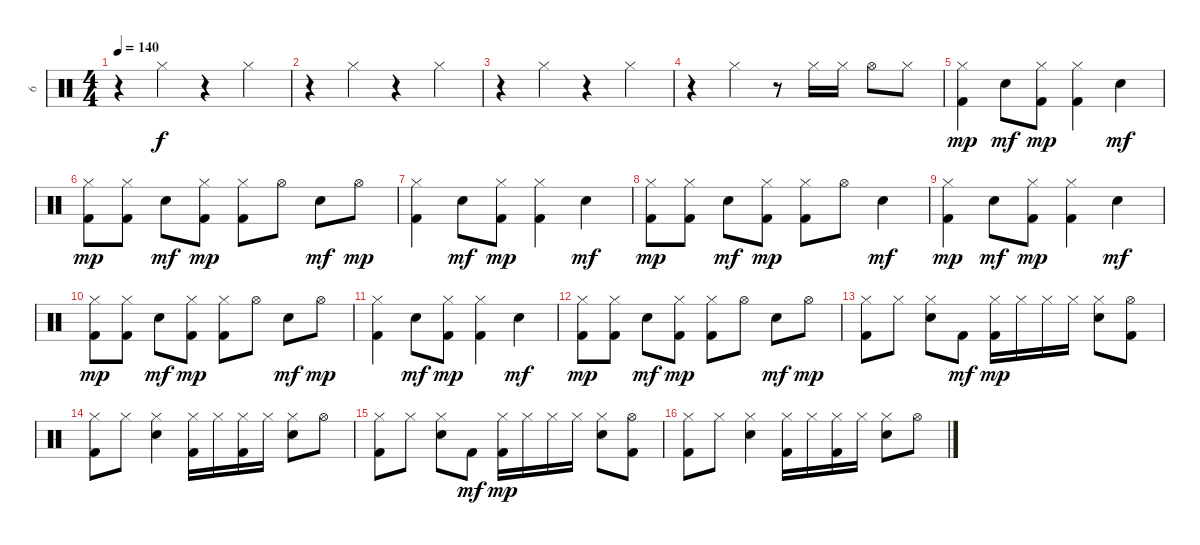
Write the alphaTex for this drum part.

\track ("6" "6") {instrument percussion}
\staff {score}
\articulation defaults
\ts (4 4)
\tempo 140
\clef neutral
\ks c
r.4{dy f} "Hi-Hat (closed)".4 r.4 "Hi-Hat (closed)".4 |
r.4 "Hi-Hat (closed)".4 r.4 "Hi-Hat (closed)".4 |
r.4 "Hi-Hat (closed)".4 r.4 "Hi-Hat (closed)".4 |
r.4 "Hi-Hat (closed)".4 r.8 "Hi-Hat (closed)".16 "Hi-Hat (closed)".16 "Hi-Hat (open)".8 "Hi-Hat (closed)".8 |
("Kick (hit) 2" "Hi-Hat (closed)").4{dy mp} "Electric Snare (hit)".8{dy mf} ("Kick (hit) 2" "Hi-Hat (closed)").8{dy mp} ("Kick (hit) 2" "Hi-Hat (closed)").4 "Electric Snare (hit)".4{dy mf} |
("Kick (hit) 2" "Hi-Hat (closed)").8{dy mp} ("Kick (hit) 2" "Hi-Hat (closed)").8 "Electric Snare (hit)".8{dy mf} ("Kick (hit) 2" "Hi-Hat (closed)").8{dy mp} ("Kick (hit) 2" "Hi-Hat (closed)").8 "Hi-Hat (open)".8 "Electric Snare (hit)".8{dy mf} "Hi-Hat (open)".8{dy mp} |
("Kick (hit) 2" "Hi-Hat (closed)").4 "Electric Snare (hit)".8{dy mf} ("Kick (hit) 2" "Hi-Hat (closed)").8{dy mp} ("Kick (hit) 2" "Hi-Hat (closed)").4 "Electric Snare (hit)".4{dy mf} |
("Kick (hit) 2" "Hi-Hat (closed)").8{dy mp} ("Kick (hit) 2" "Hi-Hat (closed)").8 "Electric Snare (hit)".8{dy mf} ("Kick (hit) 2" "Hi-Hat (closed)").8{dy mp} ("Kick (hit) 2" "Hi-Hat (closed)").8 "Hi-Hat (open)".8 "Electric Snare (hit)".4{dy mf} |
("Kick (hit) 2" "Hi-Hat (closed)").4{dy mp} "Electric Snare (hit)".8{dy mf} ("Kick (hit) 2" "Hi-Hat (closed)").8{dy mp} ("Kick (hit) 2" "Hi-Hat (closed)").4 "Electric Snare (hit)".4{dy mf} |
("Kick (hit) 2" "Hi-Hat (closed)").8{dy mp} ("Kick (hit) 2" "Hi-Hat (closed)").8 "Electric Snare (hit)".8{dy mf} ("Kick (hit) 2" "Hi-Hat (closed)").8{dy mp} ("Kick (hit) 2" "Hi-Hat (closed)").8 "Hi-Hat (open)".8 "Electric Snare (hit)".8{dy mf} "Hi-Hat (open)".8{dy mp} |
("Kick (hit) 2" "Hi-Hat (closed)").4 "Electric Snare (hit)".8{dy mf} ("Kick (hit) 2" "Hi-Hat (closed)").8{dy mp} ("Kick (hit) 2" "Hi-Hat (closed)").4 "Electric Snare (hit)".4{dy mf} |
("Kick (hit) 2" "Hi-Hat (closed)").8{dy mp} ("Kick (hit) 2" "Hi-Hat (closed)").8 "Electric Snare (hit)".8{dy mf} ("Kick (hit) 2" "Hi-Hat (closed)").8{dy mp} ("Kick (hit) 2" "Hi-Hat (closed)").8 "Hi-Hat (open)".8 "Electric Snare (hit)".8{dy mf} "Hi-Hat (open)".8{dy mp} |
("Kick (hit) 2" "Hi-Hat (closed)").8 "Hi-Hat (closed)".8 ("Electric Snare (hit)" "Hi-Hat (closed)").8 "Kick (hit) 2".8{dy mf} ("Kick (hit) 2" "Hi-Hat (closed)").16{dy mp} "Hi-Hat (closed)".16 "Hi-Hat (closed)".16 "Hi-Hat (closed)".16 ("Electric Snare (hit)" "Hi-Hat (closed)").8 ("Kick (hit) 2" "Hi-Hat (open)").8 |
("Kick (hit) 2" "Hi-Hat (closed)").8 "Hi-Hat (closed)".8 ("Electric Snare (hit)" "Hi-Hat (closed)").4 ("Kick (hit) 2" "Hi-Hat (closed)").16 "Hi-Hat (closed)".16 ("Kick (hit) 2" "Hi-Hat (closed)").16 "Hi-Hat (closed)".16 ("Electric Snare (hit)" "Hi-Hat (closed)").8 "Hi-Hat (open)".8 |
("Kick (hit) 2" "Hi-Hat (closed)").8 "Hi-Hat (closed)".8 ("Electric Snare (hit)" "Hi-Hat (closed)").8 "Kick (hit) 2".8{dy mf} ("Kick (hit) 2" "Hi-Hat (closed)").16{dy mp} "Hi-Hat (closed)".16 "Hi-Hat (closed)".16 "Hi-Hat (closed)".16 ("Electric Snare (hit)" "Hi-Hat (closed)").8 ("Kick (hit) 2" "Hi-Hat (open)").8 |
("Kick (hit) 2" "Hi-Hat (closed)").8 "Hi-Hat (closed)".8 ("Electric Snare (hit)" "Hi-Hat (closed)").4 ("Kick (hit) 2" "Hi-Hat (closed)").16 "Hi-Hat (closed)".16 ("Kick (hit) 2" "Hi-Hat (closed)").16 "Hi-Hat (closed)".16 ("Electric Snare (hit)" "Hi-Hat (closed)").8 "Hi-Hat (open)".8
